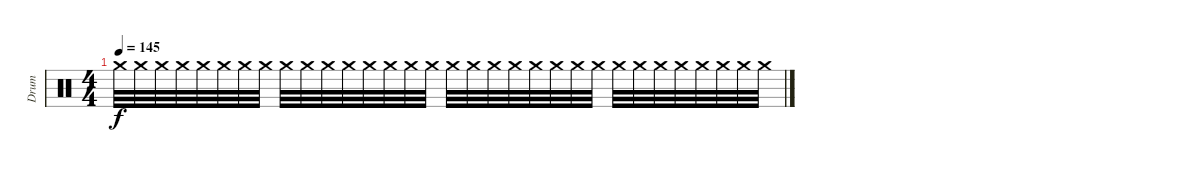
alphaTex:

\track ("Drum" "Drum") {instrument percussion bank 4}
\staff {score}
\articulation defaults
\ts (4 4)
\tempo 145
\clef neutral
\ks c "Crash medium (hit)".32{dy f volume 13} "Crash medium (hit)".32 "Crash medium (hit)".32 "Crash medium (hit)".32 "Crash medium (hit)".32 "Crash medium (hit)".32 "Crash medium (hit)".32 "Crash medium (hit)".32 "Crash medium (hit)".32 "Crash medium (hit)".32 "Crash medium (hit)".32 "Crash medium (hit)".32 "Crash medium (hit)".32 "Crash medium (hit)".32 "Crash medium (hit)".32 "Crash medium (hit)".32 "Crash medium (hit)".32 "Crash medium (hit)".32 "Crash medium (hit)".32 "Crash medium (hit)".32 "Crash medium (hit)".32 "Crash medium (hit)".32 "Crash medium (hit)".32 "Crash medium (hit)".32 "Crash medium (hit)".32 "Crash medium (hit)".32 "Crash medium (hit)".32 "Crash medium (hit)".32 "Crash medium (hit)".32 "Crash medium (hit)".32 "Crash medium (hit)".32 "Crash medium (hit)".32
